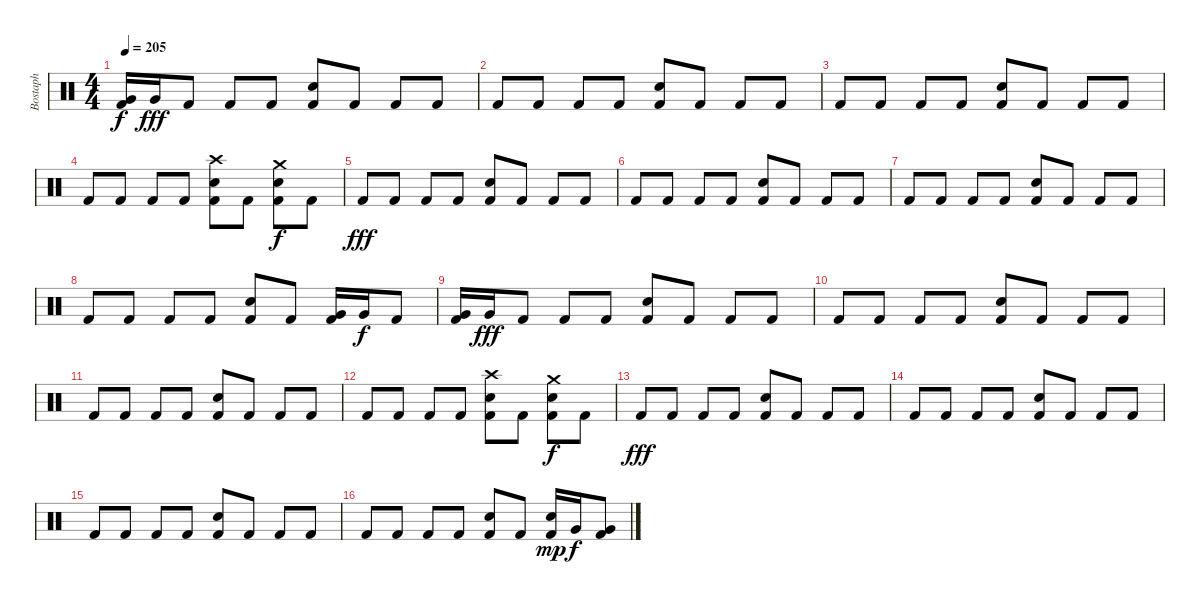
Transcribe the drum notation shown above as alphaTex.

\track ("Bostaph" "Bostaph") {instrument percussion}
\staff {score}
\articulation defaults
\ts (4 4)
\tempo 205
\clef neutral
\ks c
("Very Low Tom (hit)" "Kick (hit) 2").16{dy f} "Very Low Tom (hit)".16{dy fff} "Kick (hit) 2".8 "Kick (hit) 2".8 "Kick (hit) 2".8 ("Electric Snare (hit)" "Kick (hit) 2").8 "Kick (hit) 2".8 "Kick (hit) 2".8 "Kick (hit) 2".8 |
"Kick (hit) 2".8 "Kick (hit) 2".8 "Kick (hit) 2".8 "Kick (hit) 2".8 ("Electric Snare (hit)" "Kick (hit) 2").8 "Kick (hit) 2".8 "Kick (hit) 2".8 "Kick (hit) 2".8 |
"Kick (hit) 2".8 "Kick (hit) 2".8 "Kick (hit) 2".8 "Kick (hit) 2".8 ("Electric Snare (hit)" "Kick (hit) 2").8 "Kick (hit) 2".8 "Kick (hit) 2".8 "Kick (hit) 2".8 |
"Kick (hit) 2".8 "Kick (hit) 2".8 "Kick (hit) 2".8 "Kick (hit) 2".8 ("Crash high (hit)" "Electric Snare (hit)" "Kick (hit) 2").8 "Kick (hit) 2".8 ("Crash medium (hit)" "Electric Snare (hit)" "Kick (hit) 2").8{dy f} "Kick (hit) 2".8 |
"Kick (hit) 2".8{dy fff} "Kick (hit) 2".8 "Kick (hit) 2".8 "Kick (hit) 2".8 ("Electric Snare (hit)" "Kick (hit) 2").8 "Kick (hit) 2".8 "Kick (hit) 2".8 "Kick (hit) 2".8 |
"Kick (hit) 2".8 "Kick (hit) 2".8 "Kick (hit) 2".8 "Kick (hit) 2".8 ("Electric Snare (hit)" "Kick (hit) 2").8 "Kick (hit) 2".8 "Kick (hit) 2".8 "Kick (hit) 2".8 |
"Kick (hit) 2".8 "Kick (hit) 2".8 "Kick (hit) 2".8 "Kick (hit) 2".8 ("Electric Snare (hit)" "Kick (hit) 2").8 "Kick (hit) 2".8 "Kick (hit) 2".8 "Kick (hit) 2".8 |
"Kick (hit) 2".8 "Kick (hit) 2".8 "Kick (hit) 2".8 "Kick (hit) 2".8 ("Electric Snare (hit)" "Kick (hit) 2").8 "Kick (hit) 2".8 ("Very Low Tom (hit)" "Kick (hit) 2").16 "Very Low Tom (hit)".16{dy f} "Kick (hit) 2".8 |
("Very Low Tom (hit)" "Kick (hit) 2").16 "Very Low Tom (hit)".16{dy fff} "Kick (hit) 2".8 "Kick (hit) 2".8 "Kick (hit) 2".8 ("Electric Snare (hit)" "Kick (hit) 2").8 "Kick (hit) 2".8 "Kick (hit) 2".8 "Kick (hit) 2".8 |
"Kick (hit) 2".8 "Kick (hit) 2".8 "Kick (hit) 2".8 "Kick (hit) 2".8 ("Electric Snare (hit)" "Kick (hit) 2").8 "Kick (hit) 2".8 "Kick (hit) 2".8 "Kick (hit) 2".8 |
"Kick (hit) 2".8 "Kick (hit) 2".8 "Kick (hit) 2".8 "Kick (hit) 2".8 ("Electric Snare (hit)" "Kick (hit) 2").8 "Kick (hit) 2".8 "Kick (hit) 2".8 "Kick (hit) 2".8 |
"Kick (hit) 2".8 "Kick (hit) 2".8 "Kick (hit) 2".8 "Kick (hit) 2".8 ("Crash high (hit)" "Electric Snare (hit)" "Kick (hit) 2").8 "Kick (hit) 2".8 ("Crash medium (hit)" "Electric Snare (hit)" "Kick (hit) 2").8{dy f} "Kick (hit) 2".8 |
"Kick (hit) 2".8{dy fff} "Kick (hit) 2".8 "Kick (hit) 2".8 "Kick (hit) 2".8 ("Electric Snare (hit)" "Kick (hit) 2").8 "Kick (hit) 2".8 "Kick (hit) 2".8 "Kick (hit) 2".8 |
"Kick (hit) 2".8 "Kick (hit) 2".8 "Kick (hit) 2".8 "Kick (hit) 2".8 ("Electric Snare (hit)" "Kick (hit) 2").8 "Kick (hit) 2".8 "Kick (hit) 2".8 "Kick (hit) 2".8 |
"Kick (hit) 2".8 "Kick (hit) 2".8 "Kick (hit) 2".8 "Kick (hit) 2".8 ("Electric Snare (hit)" "Kick (hit) 2").8 "Kick (hit) 2".8 "Kick (hit) 2".8 "Kick (hit) 2".8 |
"Kick (hit) 2".8 "Kick (hit) 2".8 "Kick (hit) 2".8 "Kick (hit) 2".8 ("Electric Snare (hit)" "Kick (hit) 2").8 "Kick (hit) 2".8 ("Electric Snare (hit)" "Kick (hit) 2").16{dy mp} "Very Low Tom (hit)".16{dy f} ("Very Low Tom (hit)" "Kick (hit) 2").8
